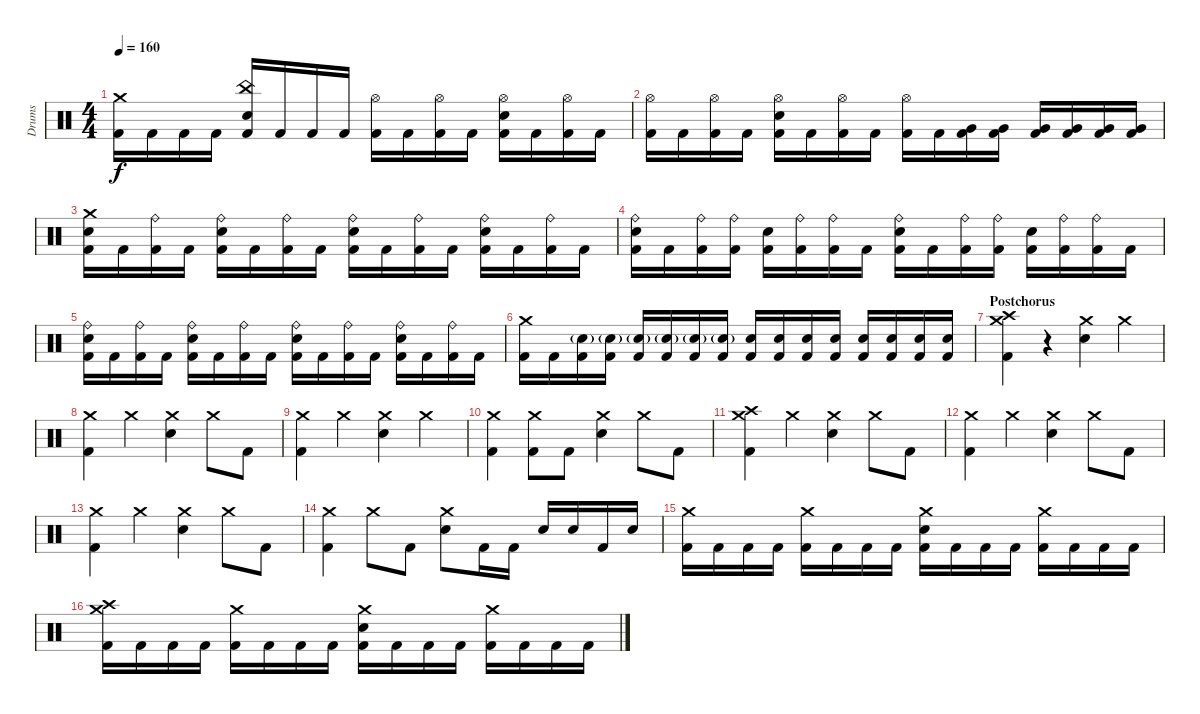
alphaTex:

\track ("Drums" "Drums") {instrument percussion}
\staff {score}
\articulation defaults
\ts (4 4)
\tempo 160
\clef neutral
\ks c
("Crash medium (hit)" "Kick (hit) 2").16{dy f} "Kick (hit) 2".16 "Kick (hit) 2".16 "Kick (hit) 2".16 ("China (hit)" "Snare (hit) 2" "Kick (hit) 2").16 "Kick (hit) 2".16 "Kick (hit) 2".16 "Kick (hit) 2".16 ("Hi-Hat (open)" "Kick (hit) 2").16 "Kick (hit) 2".16 ("Hi-Hat (open)" "Kick (hit) 2").16 "Kick (hit) 2".16 ("Hi-Hat (open)" "Snare (hit) 2" "Kick (hit) 2").16 "Kick (hit) 2".16 ("Hi-Hat (open)" "Kick (hit) 2").16 "Kick (hit) 2".16 |
("Hi-Hat (open)" "Kick (hit) 2").16 "Kick (hit) 2".16 ("Hi-Hat (open)" "Kick (hit) 2").16 "Kick (hit) 2".16 ("Hi-Hat (open)" "Snare (hit) 2" "Kick (hit) 2").16 "Kick (hit) 2".16 ("Hi-Hat (open)" "Kick (hit) 2").16 "Kick (hit) 2".16 ("Hi-Hat (open)" "Kick (hit) 2").16 "Kick (hit) 2".16 ("Very Low Tom (hit)" "Kick (hit) 2").16 ("Very Low Tom (hit)" "Kick (hit) 2").16 ("Very Low Tom (hit)" "Kick (hit) 2").16 ("Very Low Tom (hit)" "Kick (hit) 2").16 ("Very Low Tom (hit)" "Kick (hit) 2").16 ("Very Low Tom (hit)" "Kick (hit) 2").16 |
("Crash medium (hit)" "Snare (hit) 2" "Kick (hit) 2").16 "Kick (hit) 2".16 ("Ride (bell)" "Kick (hit) 2").16 "Kick (hit) 2".16 ("Ride (bell)" "Snare (hit) 2" "Kick (hit) 2").16 "Kick (hit) 2".16 ("Ride (bell)" "Kick (hit) 2").16 "Kick (hit) 2".16 ("Ride (bell)" "Snare (hit) 2" "Kick (hit) 2").16 "Kick (hit) 2".16 ("Ride (bell)" "Kick (hit) 2").16 "Kick (hit) 2".16 ("Ride (bell)" "Snare (hit) 2" "Kick (hit) 2").16 "Kick (hit) 2".16 ("Ride (bell)" "Kick (hit) 2").16 "Kick (hit) 2".16 |
("Ride (bell)" "Snare (hit) 2" "Kick (hit) 2").16 "Kick (hit) 2".16 ("Ride (bell)" "Kick (hit) 2").16 ("Ride (bell)" "Kick (hit) 2").16 ("Snare (hit) 2" "Kick (hit) 2").16 ("Ride (bell)" "Kick (hit) 2").16 ("Ride (bell)" "Kick (hit) 2").16 "Kick (hit) 2".16 ("Ride (bell)" "Snare (hit) 2" "Kick (hit) 2").16 "Kick (hit) 2".16 ("Ride (bell)" "Kick (hit) 2").16 ("Ride (bell)" "Kick (hit) 2").16 ("Snare (hit) 2" "Kick (hit) 2").16 ("Ride (bell)" "Kick (hit) 2").16 ("Ride (bell)" "Kick (hit) 2").16 "Kick (hit) 2".16 |
("Ride (bell)" "Snare (hit) 2" "Kick (hit) 2").16 "Kick (hit) 2".16 ("Ride (bell)" "Kick (hit) 2").16 "Kick (hit) 2".16 ("Ride (bell)" "Snare (hit) 2" "Kick (hit) 2").16 "Kick (hit) 2".16 ("Ride (bell)" "Kick (hit) 2").16 "Kick (hit) 2".16 ("Ride (bell)" "Snare (hit) 2" "Kick (hit) 2").16 "Kick (hit) 2".16 ("Ride (bell)" "Kick (hit) 2").16 "Kick (hit) 2".16 ("Ride (bell)" "Snare (hit) 2" "Kick (hit) 2").16 "Kick (hit) 2".16 ("Ride (bell)" "Kick (hit) 2").16 "Kick (hit) 2".16 |
("Crash medium (hit)" "Kick (hit) 2").16 "Kick (hit) 2".16 ("Snare (hit) 2"{g} "Kick (hit) 2").16 ("Snare (hit) 2"{g} "Kick (hit) 2").16 ("Snare (hit) 2"{g} "Kick (hit) 2").16 ("Snare (hit) 2"{g} "Kick (hit) 2").16 ("Snare (hit) 2"{g} "Kick (hit) 2").16 ("Snare (hit) 2"{g} "Kick (hit) 2").16 ("Snare (hit) 2" "Kick (hit) 2").16 ("Snare (hit) 2" "Kick (hit) 2").16 ("Snare (hit) 2" "Kick (hit) 2").16 ("Snare (hit) 2" "Kick (hit) 2").16 ("Snare (hit) 2" "Kick (hit) 2").16 ("Snare (hit) 2" "Kick (hit) 2").16 ("Snare (hit) 2" "Kick (hit) 2").16 ("Snare (hit) 2" "Kick (hit) 2").16 |
\section ("" "Postchorus")
("Crash high (hit)" "Crash medium (hit)" "Kick (hit) 2").4 r.4 ("Crash medium (hit)" "Snare (hit) 2").4 "Crash medium (hit)".4 |
("Crash medium (hit)" "Kick (hit) 2").4 "Crash medium (hit)".4 ("Crash medium (hit)" "Snare (hit) 2").4 "Crash medium (hit)".8 "Kick (hit) 2".8 |
("Crash medium (hit)" "Kick (hit) 2").4 "Crash medium (hit)".4 ("Crash medium (hit)" "Snare (hit) 2").4 "Crash medium (hit)".4 |
("Crash medium (hit)" "Kick (hit) 2").4 ("Crash medium (hit)" "Kick (hit) 2").8 "Kick (hit) 2".8 ("Crash medium (hit)" "Snare (hit) 2").4 "Crash medium (hit)".8 "Kick (hit) 2".8 |
("Crash high (hit)" "Crash medium (hit)" "Kick (hit) 2").4 "Crash medium (hit)".4 ("Crash medium (hit)" "Snare (hit) 2").4 "Crash medium (hit)".8 "Kick (hit) 2".8 |
("Crash medium (hit)" "Kick (hit) 2").4 "Crash medium (hit)".4 ("Crash medium (hit)" "Snare (hit) 2").4 "Crash medium (hit)".8 "Kick (hit) 2".8 |
("Crash medium (hit)" "Kick (hit) 2").4 "Crash medium (hit)".4 ("Crash medium (hit)" "Snare (hit) 2").4 "Crash medium (hit)".8 "Kick (hit) 2".8 |
("Crash medium (hit)" "Kick (hit) 2").4 "Crash medium (hit)".8 "Kick (hit) 2".8 ("Crash medium (hit)" "Snare (hit) 2").8 "Kick (hit) 2".16 "Kick (hit) 2".16 "Snare (hit) 2".16 "Snare (hit) 2".16 "Kick (hit) 2".16 "Snare (hit) 2".16 |
("Crash medium (hit)" "Kick (hit) 2").16 "Kick (hit) 2".16 "Kick (hit) 2".16 "Kick (hit) 2".16 ("Crash medium (hit)" "Kick (hit) 2").16 "Kick (hit) 2".16 "Kick (hit) 2".16 "Kick (hit) 2".16 ("Crash medium (hit)" "Snare (hit) 2" "Kick (hit) 2").16 "Kick (hit) 2".16 "Kick (hit) 2".16 "Kick (hit) 2".16 ("Crash medium (hit)" "Kick (hit) 2").16 "Kick (hit) 2".16 "Kick (hit) 2".16 "Kick (hit) 2".16 |
("Crash high (hit)" "Crash medium (hit)" "Kick (hit) 2").16 "Kick (hit) 2".16 "Kick (hit) 2".16 "Kick (hit) 2".16 ("Crash medium (hit)" "Kick (hit) 2").16 "Kick (hit) 2".16 "Kick (hit) 2".16 "Kick (hit) 2".16 ("Crash medium (hit)" "Snare (hit) 2" "Kick (hit) 2").16 "Kick (hit) 2".16 "Kick (hit) 2".16 "Kick (hit) 2".16 ("Crash medium (hit)" "Kick (hit) 2").16 "Kick (hit) 2".16 "Kick (hit) 2".16 "Kick (hit) 2".16
